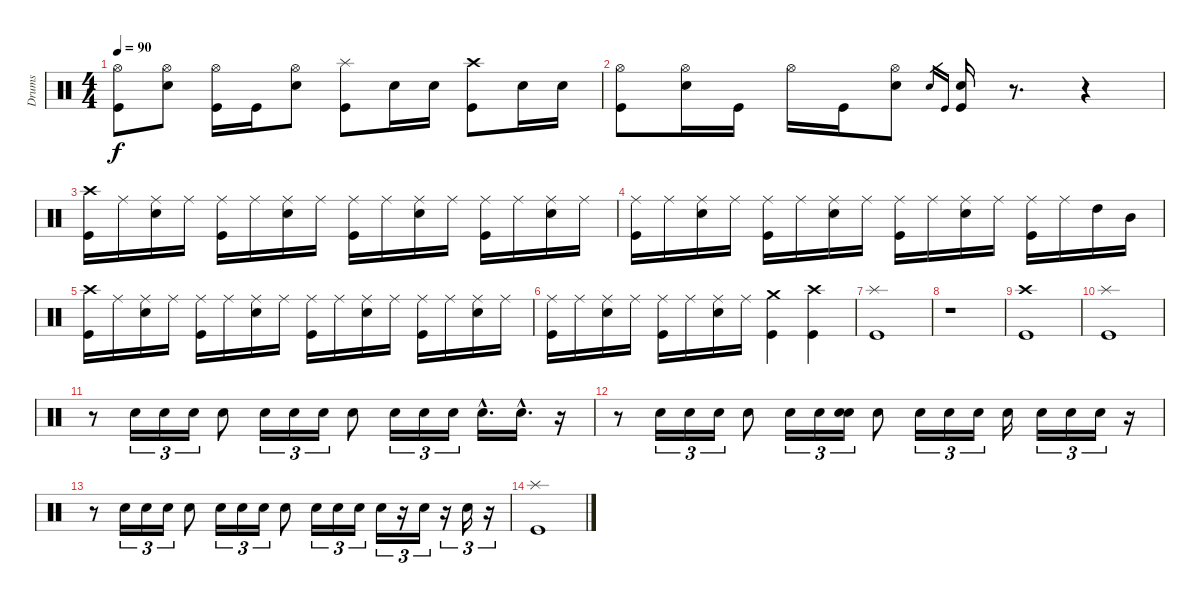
\track ("Drums" "Drums") {instrument percussion}
\staff {score}
\articulation defaults
\ts (4 4)
\tempo 90
\clef neutral
\ks c
("Hi-Hat (open)" "Kick (hit)").8{dy f} ("Hi-Hat (open)" "Electric Snare (hit)").8 ("Hi-Hat (open)" "Kick (hit)").16 "Kick (hit)".16 ("Hi-Hat (open)" "Electric Snare (hit)").8 ("Splash (hit)" "Kick (hit)").8 "Electric Snare (hit)".16 "Electric Snare (hit)".16 ("Crash high (hit)" "Kick (hit)").8 "Electric Snare (hit)".16 "Electric Snare (hit)".16 |
("Hi-Hat (open)" "Kick (hit)").8 ("Hi-Hat (open)" "Electric Snare (hit)").16 "Kick (hit)".16 "Hi-Hat (open)".16 "Kick (hit)".16 ("Hi-Hat (open)" "Electric Snare (hit)").8 "Electric Snare (hit)".16{gr} "Kick (hit)".16{gr} ("Electric Snare (hit)" "Kick (hit)").16 r.8{d} r.4 |
("Crash high (hit)" "Kick (hit)").16 "Ride (middle)".16 ("Ride (middle)" "Electric Snare (hit)").16 "Ride (middle)".16 ("Ride (middle)" "Kick (hit)").16 "Ride (middle)".16 ("Ride (middle)" "Electric Snare (hit)").16 "Ride (middle)".16 ("Ride (middle)" "Kick (hit)").16 "Ride (middle)".16 ("Ride (middle)" "Electric Snare (hit)").16 "Ride (middle)".16 ("Ride (middle)" "Kick (hit)").16 "Ride (middle)".16 ("Ride (middle)" "Electric Snare (hit)").16 "Ride (middle)".16 |
("Ride (middle)" "Kick (hit)").16 "Ride (middle)".16 ("Ride (middle)" "Electric Snare (hit)").16 "Ride (middle)".16 ("Ride (middle)" "Kick (hit)").16 "Ride (middle)".16 ("Ride (middle)" "Electric Snare (hit)").16 "Ride (middle)".16 ("Ride (middle)" "Kick (hit)").16 "Ride (middle)".16 ("Ride (middle)" "Electric Snare (hit)").16 "Ride (middle)".16 ("Ride (middle)" "Kick (hit)").16 "Ride (middle)".16 "High Tom (hit)".16 "Mid Tom (hit)".16 |
("Crash high (hit)" "Kick (hit)").16 "Ride (middle)".16 ("Ride (middle)" "Electric Snare (hit)").16 "Ride (middle)".16 ("Ride (middle)" "Kick (hit)").16 "Ride (middle)".16 ("Ride (middle)" "Electric Snare (hit)").16 "Ride (middle)".16 ("Ride (middle)" "Kick (hit)").16 "Ride (middle)".16 ("Ride (middle)" "Electric Snare (hit)").16 "Ride (middle)".16 ("Ride (middle)" "Kick (hit)").16 "Ride (middle)".16 ("Ride (middle)" "Electric Snare (hit)").16 "Ride (middle)".16 |
("Ride (middle)" "Kick (hit)").16 "Ride (middle)".16 ("Ride (middle)" "Electric Snare (hit)").16 "Ride (middle)".16 ("Ride (middle)" "Kick (hit)").16 "Ride (middle)".16 ("Ride (middle)" "Electric Snare (hit)").16 "Ride (middle)".16 ("Crash medium (hit)" "Kick (hit)").4 ("Crash high (hit)" "Kick (hit)").4 |
("Splash (hit)" "Kick (hit)").1 |
r.1 |
("Crash high (hit)" "Kick (hit)").1 |
("Splash (hit)" "Kick (hit)").1 |
r.8{volume 10} "Electric Snare (hit)".16{tu (3 2)} "Electric Snare (hit)".16{tu (3 2)} "Electric Snare (hit)".16{tu (3 2)} "Electric Snare (hit)".8 "Electric Snare (hit)".16{tu (3 2)} "Electric Snare (hit)".16{tu (3 2)} "Electric Snare (hit)".16{tu (3 2)} "Electric Snare (hit)".8 "Electric Snare (hit)".16{tu (3 2)} "Electric Snare (hit)".16{tu (3 2)} "Electric Snare (hit)".16{tu (3 2)} "Electric Snare (hit)"{hac}.16{d} "Electric Snare (hit)"{hac}.16{d} r.16 |
r.8{volume 10} "Electric Snare (hit)".16{tu (3 2)} "Electric Snare (hit)".16{tu (3 2)} "Electric Snare (hit)".16{tu (3 2)} "Electric Snare (hit)".8 "Electric Snare (hit)".16{tu (3 2)} "Electric Snare (hit)".16{tu (3 2)} ("Snare (hit)" "Electric Snare (hit)").16{tu (3 2)} "Electric Snare (hit)".8 "Electric Snare (hit)".16{tu (3 2)} "Electric Snare (hit)".16{tu (3 2)} "Electric Snare (hit)".16{tu (3 2)} "Electric Snare (hit)".16 "Electric Snare (hit)".16{tu (3 2)} "Electric Snare (hit)".16{tu (3 2)} "Electric Snare (hit)".16{tu (3 2)} r.16 |
r.8 "Electric Snare (hit)".16{tu (3 2)} "Electric Snare (hit)".16{tu (3 2)} "Electric Snare (hit)".16{tu (3 2)} "Electric Snare (hit)".8 "Electric Snare (hit)".16{tu (3 2)} "Electric Snare (hit)".16{tu (3 2)} "Electric Snare (hit)".16{tu (3 2)} "Electric Snare (hit)".8 "Electric Snare (hit)".16{tu (3 2)} "Electric Snare (hit)".16{tu (3 2)} "Electric Snare (hit)".16{tu (3 2)} "Electric Snare (hit)".16{tu (3 2)} r.16{tu (3 2)} "Electric Snare (hit)".16{tu (3 2)} r.16{tu (3 2)} "Electric Snare (hit)".16{tu (3 2)} r.16{tu (3 2)} |
("Splash (hit)" "Kick (hit)").1{volume 13}
